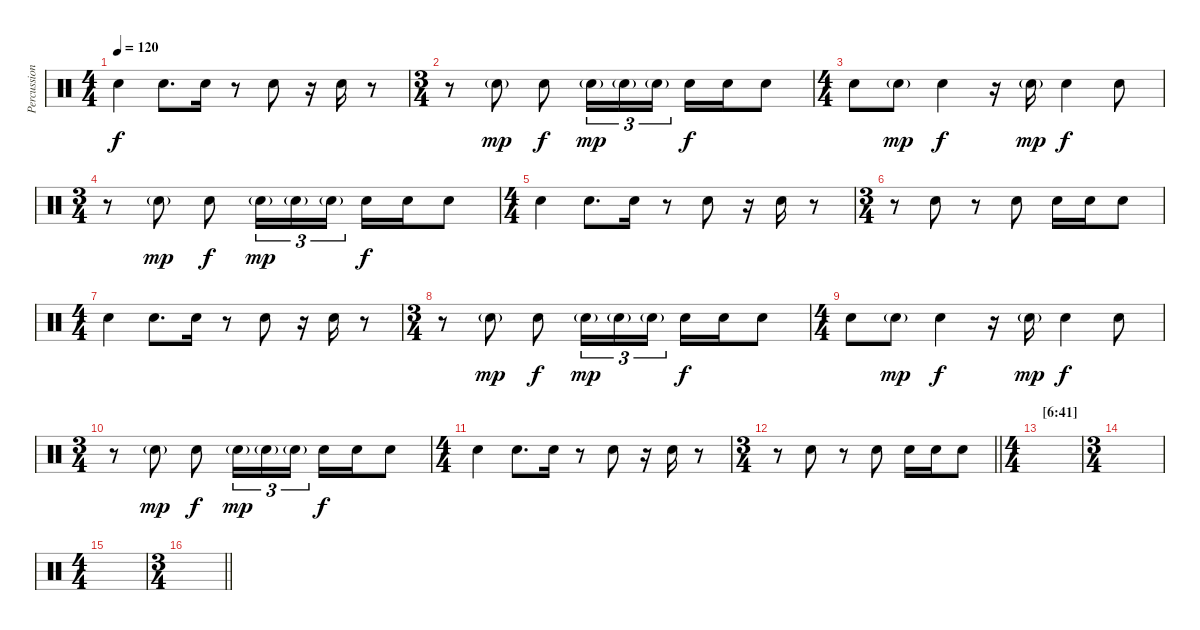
\track ("Percussion" "Percussion") {instrument percussion}
\staff {score}
\articulation defaults
\ts (4 4)
\tempo 120
\clef neutral
\ks c "Electric Snare (hit)".4{dy f} "Electric Snare (hit)".8{d} "Electric Snare (hit)".16
r.8 "Electric Snare (hit)".8 r.16 "Electric Snare (hit)".16 r.8 |
\ts (3 4)
r.8 "Electric Snare (hit)"{g}.8{dy mp} "Electric Snare (hit)".8{dy f} "Electric Snare (hit)"{g}.16{tu (3 2) dy mp} "Electric Snare (hit)"{g}.16{tu (3 2)} "Electric Snare (hit)"{g}.16{tu (3 2)} "Electric Snare (hit)".16{dy f} "Electric Snare (hit)".16 "Electric Snare (hit)".8 |
\ts (4 4)
"Electric Snare (hit)".8 "Electric Snare (hit)"{g}.8{dy mp} "Electric Snare (hit)".4{dy f} r.16 "Electric Snare (hit)"{g}.16{dy mp} "Electric Snare (hit)".4{dy f} "Electric Snare (hit)".8 |
\ts (3 4)
r.8 "Electric Snare (hit)"{g}.8{dy mp} "Electric Snare (hit)".8{dy f} "Electric Snare (hit)"{g}.16{tu (3 2) dy mp} "Electric Snare (hit)"{g}.16{tu (3 2)} "Electric Snare (hit)"{g}.16{tu (3 2)} "Electric Snare (hit)".16{dy f} "Electric Snare (hit)".16 "Electric Snare (hit)".8 |
\ts (4 4)
"Electric Snare (hit)".4 "Electric Snare (hit)".8{d} "Electric Snare (hit)".16 r.8 "Electric Snare (hit)".8 r.16 "Electric Snare (hit)".16 r.8 |
\ts (3 4)
r.8 "Electric Snare (hit)".8 r.8 "Electric Snare (hit)".8 "Electric Snare (hit)".16 "Electric Snare (hit)".16 "Electric Snare (hit)".8 |
\ts (4 4)
"Electric Snare (hit)".4 "Electric Snare (hit)".8{d} "Electric Snare (hit)".16 r.8 "Electric Snare (hit)".8 r.16 "Electric Snare (hit)".16 r.8 |
\ts (3 4)
r.8 "Electric Snare (hit)"{g}.8{dy mp} "Electric Snare (hit)".8{dy f} "Electric Snare (hit)"{g}.16{tu (3 2) dy mp} "Electric Snare (hit)"{g}.16{tu (3 2)} "Electric Snare (hit)"{g}.16{tu (3 2)} "Electric Snare (hit)".16{dy f} "Electric Snare (hit)".16 "Electric Snare (hit)".8 |
\ts (4 4)
"Electric Snare (hit)".8 "Electric Snare (hit)"{g}.8{dy mp} "Electric Snare (hit)".4{dy f} r.16 "Electric Snare (hit)"{g}.16{dy mp} "Electric Snare (hit)".4{dy f} "Electric Snare (hit)".8 |
\ts (3 4)
r.8 "Electric Snare (hit)"{g}.8{dy mp} "Electric Snare (hit)".8{dy f} "Electric Snare (hit)"{g}.16{tu (3 2) dy mp} "Electric Snare (hit)"{g}.16{tu (3 2)} "Electric Snare (hit)"{g}.16{tu (3 2)} "Electric Snare (hit)".16{dy f} "Electric Snare (hit)".16 "Electric Snare (hit)".8 |
\ts (4 4)
"Electric Snare (hit)".4 "Electric Snare (hit)".8{d} "Electric Snare (hit)".16 r.8 "Electric Snare (hit)".8 r.16 "Electric Snare (hit)".16 r.8 |
\ts (3 4)
\barLineRight lightlight
r.8 "Electric Snare (hit)".8 r.8 "Electric Snare (hit)".8 "Electric Snare (hit)".16 "Electric Snare (hit)".16 "Electric Snare (hit)".8 |
\ts (4 4)
\section ("" "[6:41]")
|
\ts (3 4)
|
\ts (4 4)
|
\ts (3 4)
\barLineRight lightlight
